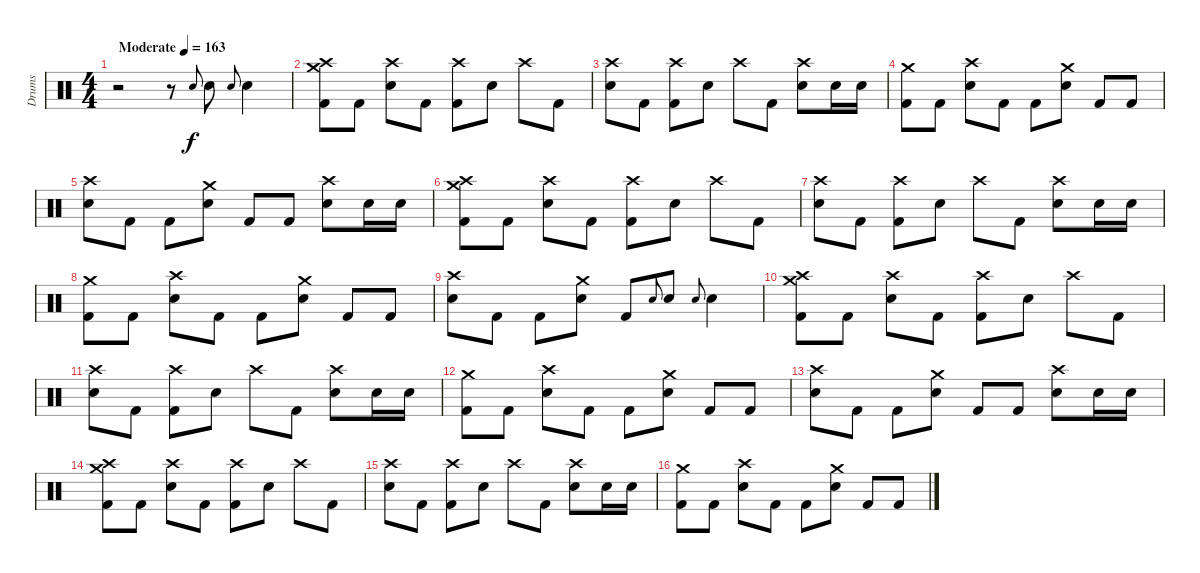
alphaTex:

\track ("Drums" "Drums") {instrument percussion}
\staff {score}
\articulation defaults
\ts (4 4)
\tempo (163 "Moderate")
\clef neutral
\ks c
r.2{dy f} r.8 "Electric Snare (hit)".8{gr onbeat} "Electric Snare (hit)".8 "Electric Snare (hit)".8{gr onbeat} "Electric Snare (hit)".4 |
("Crash high (hit)" "Crash medium (hit)" "Kick (hit) 2").8 "Kick (hit) 2".8 ("Crash high (hit)" "Electric Snare (hit)").8 "Kick (hit) 2".8 ("Crash high (hit)" "Kick (hit) 2").8 "Electric Snare (hit)".8 "Crash high (hit)".8 "Kick (hit) 2".8 |
("Crash high (hit)" "Electric Snare (hit)").8 "Kick (hit) 2".8 ("Crash high (hit)" "Kick (hit) 2").8 "Electric Snare (hit)".8 "Crash high (hit)".8 "Kick (hit) 2".8 ("Crash high (hit)" "Electric Snare (hit)").8 "Electric Snare (hit)".16 "Electric Snare (hit)".16 |
("Crash medium (hit)" "Kick (hit) 2").8 "Kick (hit) 2".8 ("Crash high (hit)" "Electric Snare (hit)").8 "Kick (hit) 2".8 "Kick (hit) 2".8 ("Crash medium (hit)" "Electric Snare (hit)").8 "Kick (hit) 2".8 "Kick (hit) 2".8 |
("Crash high (hit)" "Electric Snare (hit)").8 "Kick (hit) 2".8 "Kick (hit) 2".8 ("Crash medium (hit)" "Electric Snare (hit)").8 "Kick (hit) 2".8 "Kick (hit) 2".8 ("Crash high (hit)" "Electric Snare (hit)").8 "Electric Snare (hit)".16 "Electric Snare (hit)".16 |
("Crash high (hit)" "Crash medium (hit)" "Kick (hit) 2").8 "Kick (hit) 2".8 ("Crash high (hit)" "Electric Snare (hit)").8 "Kick (hit) 2".8 ("Crash high (hit)" "Kick (hit) 2").8 "Electric Snare (hit)".8 "Crash high (hit)".8 "Kick (hit) 2".8 |
("Crash high (hit)" "Electric Snare (hit)").8 "Kick (hit) 2".8 ("Crash high (hit)" "Kick (hit) 2").8 "Electric Snare (hit)".8 "Crash high (hit)".8 "Kick (hit) 2".8 ("Crash high (hit)" "Electric Snare (hit)").8 "Electric Snare (hit)".16 "Electric Snare (hit)".16 |
("Crash medium (hit)" "Kick (hit) 2").8 "Kick (hit) 2".8 ("Crash high (hit)" "Electric Snare (hit)").8 "Kick (hit) 2".8 "Kick (hit) 2".8 ("Crash medium (hit)" "Electric Snare (hit)").8 "Kick (hit) 2".8 "Kick (hit) 2".8 |
("Crash high (hit)" "Electric Snare (hit)").8 "Kick (hit) 2".8 "Kick (hit) 2".8 ("Crash medium (hit)" "Electric Snare (hit)").8 "Kick (hit) 2".8 "Electric Snare (hit)".8{gr onbeat} "Electric Snare (hit)".8 "Electric Snare (hit)".8{gr onbeat} "Electric Snare (hit)".4 |
("Crash high (hit)" "Crash medium (hit)" "Kick (hit) 2").8 "Kick (hit) 2".8 ("Crash high (hit)" "Electric Snare (hit)").8 "Kick (hit) 2".8 ("Crash high (hit)" "Kick (hit) 2").8 "Electric Snare (hit)".8 "Crash high (hit)".8 "Kick (hit) 2".8 |
("Crash high (hit)" "Electric Snare (hit)").8 "Kick (hit) 2".8 ("Crash high (hit)" "Kick (hit) 2").8 "Electric Snare (hit)".8 "Crash high (hit)".8 "Kick (hit) 2".8 ("Crash high (hit)" "Electric Snare (hit)").8 "Electric Snare (hit)".16 "Electric Snare (hit)".16 |
("Crash medium (hit)" "Kick (hit) 2").8 "Kick (hit) 2".8 ("Crash high (hit)" "Electric Snare (hit)").8 "Kick (hit) 2".8 "Kick (hit) 2".8 ("Crash medium (hit)" "Electric Snare (hit)").8 "Kick (hit) 2".8 "Kick (hit) 2".8 |
("Crash high (hit)" "Electric Snare (hit)").8 "Kick (hit) 2".8 "Kick (hit) 2".8 ("Crash medium (hit)" "Electric Snare (hit)").8 "Kick (hit) 2".8 "Kick (hit) 2".8 ("Crash high (hit)" "Electric Snare (hit)").8 "Electric Snare (hit)".16 "Electric Snare (hit)".16 |
("Crash high (hit)" "Crash medium (hit)" "Kick (hit) 2").8 "Kick (hit) 2".8 ("Crash high (hit)" "Electric Snare (hit)").8 "Kick (hit) 2".8 ("Crash high (hit)" "Kick (hit) 2").8 "Electric Snare (hit)".8 "Crash high (hit)".8 "Kick (hit) 2".8 |
("Crash high (hit)" "Electric Snare (hit)").8 "Kick (hit) 2".8 ("Crash high (hit)" "Kick (hit) 2").8 "Electric Snare (hit)".8 "Crash high (hit)".8 "Kick (hit) 2".8 ("Crash high (hit)" "Electric Snare (hit)").8 "Electric Snare (hit)".16 "Electric Snare (hit)".16 |
("Crash medium (hit)" "Kick (hit) 2").8 "Kick (hit) 2".8 ("Crash high (hit)" "Electric Snare (hit)").8 "Kick (hit) 2".8 "Kick (hit) 2".8 ("Crash medium (hit)" "Electric Snare (hit)").8 "Kick (hit) 2".8 "Kick (hit) 2".8
